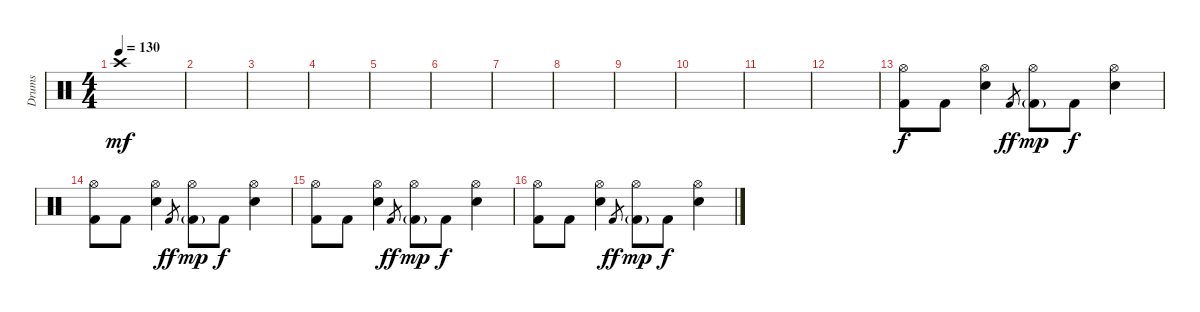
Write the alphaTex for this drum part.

\track ("Drums" "Drums") {instrument percussion}
\staff {score}
\articulation defaults
\ts (4 4)
\tempo 130
\clef neutral
\ks c "Crash high (hit)".1{dy mf}
|
|
|
|
|
|
|
|
|
|
|
|
("Hi-Hat (open)" "Kick (hit) 2").8{dy f} "Kick (hit) 2".8 ("Hi-Hat (open)" "Electric Snare (hit)").4 "Kick (hit) 2".8{gr dy ff} ("Hi-Hat (open)" "Kick (hit) 2"{g}).8{dy mp} "Kick (hit) 2".8{dy f} ("Hi-Hat (open)" "Electric Snare (hit)").4 |
("Hi-Hat (open)" "Kick (hit) 2").8 "Kick (hit) 2".8 ("Hi-Hat (open)" "Electric Snare (hit)").4 "Kick (hit) 2".8{gr dy ff} ("Hi-Hat (open)" "Kick (hit) 2"{g}).8{dy mp} "Kick (hit) 2".8{dy f} ("Hi-Hat (open)" "Electric Snare (hit)").4 |
("Hi-Hat (open)" "Kick (hit) 2").8 "Kick (hit) 2".8 ("Hi-Hat (open)" "Electric Snare (hit)").4 "Kick (hit) 2".8{gr dy ff} ("Hi-Hat (open)" "Kick (hit) 2"{g}).8{dy mp} "Kick (hit) 2".8{dy f} ("Hi-Hat (open)" "Electric Snare (hit)").4 |
("Hi-Hat (open)" "Kick (hit) 2").8 "Kick (hit) 2".8 ("Hi-Hat (open)" "Electric Snare (hit)").4 "Kick (hit) 2".8{gr dy ff} ("Hi-Hat (open)" "Kick (hit) 2"{g}).8{dy mp} "Kick (hit) 2".8{dy f} ("Hi-Hat (open)" "Electric Snare (hit)").4
